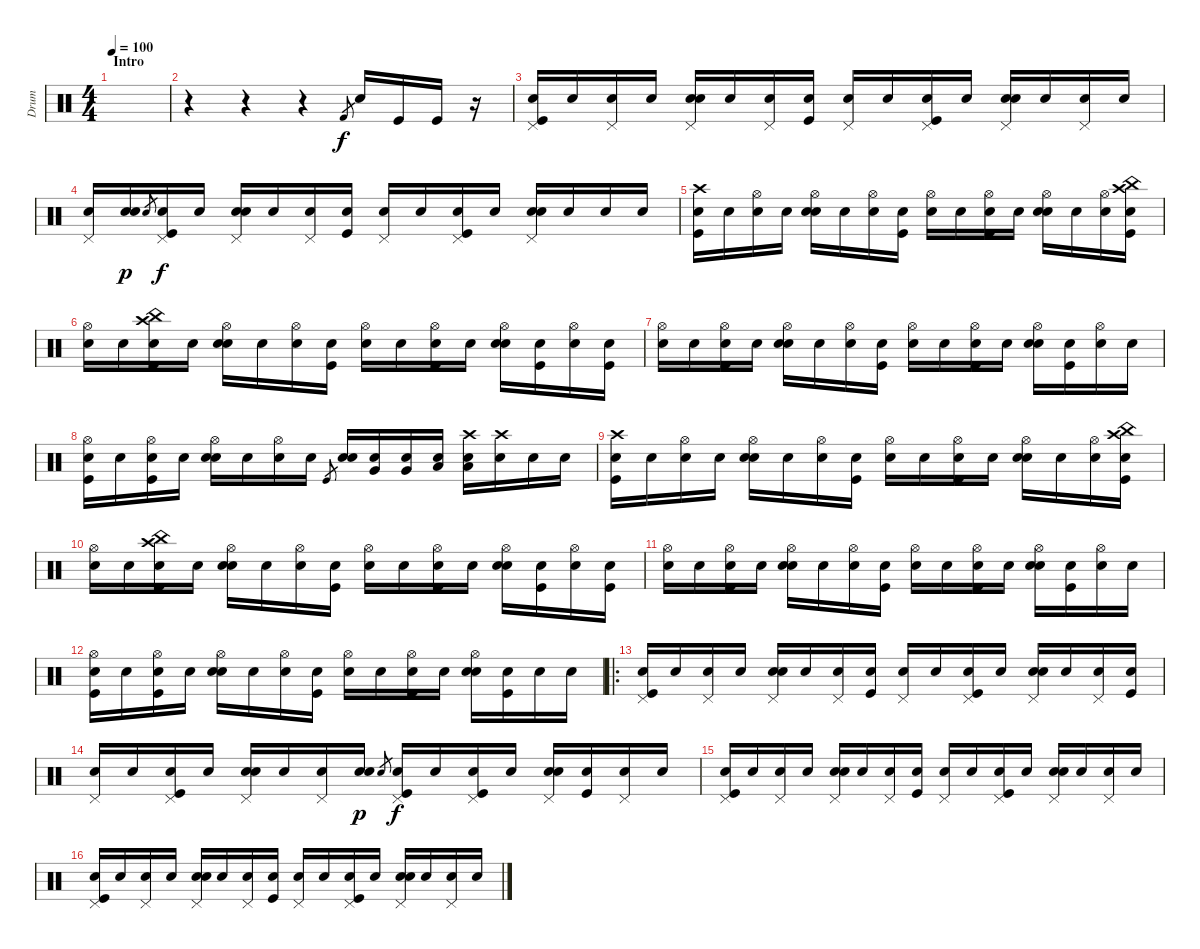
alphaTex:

\track ("Drum" "Drum") {instrument percussion}
\staff {score}
\articulation defaults
\ts (4 4)
\section ("" "Intro")
\tempo 100
\clef neutral
\ks c
|
r.4 r.4 r.4 "Kick (hit) 2".8{gr} "Snare (hit) 2".16 "Kick (hit)".16 "Kick (hit)".16 r.16 |
("Kick (hit)" "Pedal Hi-Hat (hit)" "Snare (hit)"{x}).16 "Snare (hit)"{x}.16 ("Pedal Hi-Hat (hit)" "Snare (hit)"{x}).16 "Snare (hit)"{x}.16 ("Snare (hit) 2" "Pedal Hi-Hat (hit)" "Snare (hit)"{x}).16 "Snare (hit)"{x}.16 ("Pedal Hi-Hat (hit)" "Snare (hit)"{x}).16 ("Kick (hit)" "Snare (hit)"{x}).16 ("Pedal Hi-Hat (hit)" "Snare (hit)"{x}).16 "Snare (hit)"{x}.16 ("Kick (hit)" "Pedal Hi-Hat (hit)" "Snare (hit)"{x}).16 "Snare (hit)"{x}.16 ("Snare (hit) 2" "Pedal Hi-Hat (hit)" "Snare (hit)"{x}).16 "Snare (hit)"{x}.16 ("Pedal Hi-Hat (hit)" "Snare (hit)"{x}).16 "Snare (hit)"{x}.16 |
("Pedal Hi-Hat (hit)" "Snare (hit)"{x}).16 ("Snare (hit) 2" "Snare (hit)"{x}).16{dy p} "Snare (hit) 2".8{gr} ("Kick (hit)" "Pedal Hi-Hat (hit)" "Snare (hit)"{x}).16{dy f} "Snare (hit)"{x}.16 ("Snare (hit) 2" "Pedal Hi-Hat (hit)" "Snare (hit)"{x}).16 "Snare (hit)"{x}.16 ("Pedal Hi-Hat (hit)" "Snare (hit)"{x}).16 ("Kick (hit)" "Snare (hit)"{x}).16 ("Pedal Hi-Hat (hit)" "Snare (hit)"{x}).16 "Snare (hit)"{x}.16 ("Kick (hit)" "Pedal Hi-Hat (hit)" "Snare (hit)"{x}).16 "Snare (hit)"{x}.16 ("Snare (hit) 2" "Pedal Hi-Hat (hit)" "Snare (hit)"{x}).16 "Snare (hit)"{x}.16 "Snare (hit)"{x}.16 "Snare (hit)"{x}.16 |
("Kick (hit)" "Crash high (hit)" "Snare (hit)"{x}).16 "Snare (hit)"{x}.16 ("Hi-Hat (open)" "Snare (hit)"{x}).16 "Snare (hit)"{x}.16 ("Snare (hit) 2" "Hi-Hat (open)" "Snare (hit)"{x}).16 "Snare (hit)"{x}.16 ("Hi-Hat (open)" "Snare (hit)"{x}).16 ("Kick (hit)" "Snare (hit)"{x}).16 ("Hi-Hat (open)" "Snare (hit)"{x}).16 "Snare (hit)"{x}.16 ("Kick (hit)" "Hi-Hat (open)" "Snare (hit)"{x}).16 "Snare (hit)"{x}.16 ("Snare (hit) 2" "Hi-Hat (open)" "Snare (hit)"{x}).16 "Snare (hit)"{x}.16 ("Hi-Hat (open)" "Snare (hit)"{x}).16 ("Crash high (hit)" "Kick (hit)" "China (hit)" "Snare (hit)"{x}).16 |
("Hi-Hat (open)" "Snare (hit)"{x}).16 "Snare (hit)"{x}.16 ("Crash high (hit)" "Kick (hit)" "China (hit)" "Snare (hit)"{x}).16 "Snare (hit)"{x}.16 ("Snare (hit) 2" "Hi-Hat (open)" "Snare (hit)"{x}).16 "Snare (hit)"{x}.16 ("Hi-Hat (open)" "Snare (hit)"{x}).16 ("Kick (hit)" "Snare (hit)"{x}).16 ("Hi-Hat (open)" "Snare (hit)"{x}).16 "Snare (hit)"{x}.16 ("Kick (hit)" "Hi-Hat (open)" "Snare (hit)"{x}).16 "Snare (hit)"{x}.16 ("Snare (hit) 2" "Hi-Hat (open)" "Snare (hit)"{x}).16 ("Kick (hit)" "Snare (hit)"{x}).16 ("Hi-Hat (open)" "Snare (hit)"{x}).16 ("Kick (hit)" "Snare (hit)"{x}).16 |
("Hi-Hat (open)" "Snare (hit)"{x}).16 "Snare (hit)"{x}.16 ("Kick (hit)" "Hi-Hat (open)" "Snare (hit)"{x}).16 "Snare (hit)"{x}.16 ("Snare (hit) 2" "Hi-Hat (open)" "Snare (hit)"{x}).16 "Snare (hit)"{x}.16 ("Hi-Hat (open)" "Snare (hit)"{x}).16 ("Kick (hit)" "Snare (hit)"{x}).16 ("Hi-Hat (open)" "Snare (hit)"{x}).16 "Snare (hit)"{x}.16 ("Kick (hit)" "Hi-Hat (open)" "Snare (hit)"{x}).16 "Snare (hit)"{x}.16 ("Snare (hit) 2" "Hi-Hat (open)" "Snare (hit)"{x}).16 ("Kick (hit)" "Snare (hit)"{x}).16 ("Hi-Hat (open)" "Snare (hit)"{x}).16 "Snare (hit)"{x}.16 |
("Kick (hit)" "Hi-Hat (open)" "Snare (hit)"{x}).16 "Snare (hit)"{x}.16 ("Kick (hit)" "Hi-Hat (open)" "Snare (hit)"{x}).16 "Snare (hit)"{x}.16 ("Snare (hit) 2" "Hi-Hat (open)" "Snare (hit)"{x}).16 "Snare (hit)"{x}.16 ("Hi-Hat (open)" "Snare (hit)"{x}).16 "Snare (hit)"{x}.16 "Kick (hit)".8{gr} ("Snare (hit) 2" "Snare (hit)"{x}).16 ("Very Low Tom (hit)" "Snare (hit)"{x}).16 ("Very Low Tom (hit)" "Snare (hit)"{x}).16 ("Low Floor Tom (hit)" "Snare (hit)"{x}).16 ("Low Floor Tom (hit)" "Crash high (hit)" "Snare (hit)"{x}).16 ("Crash high (hit)" "Snare (hit)"{x}).16 "Snare (hit)"{x}.16 "Snare (hit)"{x}.16 |
("Kick (hit)" "Crash high (hit)" "Snare (hit)"{x}).16 "Snare (hit)"{x}.16 ("Hi-Hat (open)" "Snare (hit)"{x}).16 "Snare (hit)"{x}.16 ("Snare (hit) 2" "Hi-Hat (open)" "Snare (hit)"{x}).16 "Snare (hit)"{x}.16 ("Hi-Hat (open)" "Snare (hit)"{x}).16 ("Kick (hit)" "Snare (hit)"{x}).16 ("Hi-Hat (open)" "Snare (hit)"{x}).16 "Snare (hit)"{x}.16 ("Kick (hit)" "Hi-Hat (open)" "Snare (hit)"{x}).16 "Snare (hit)"{x}.16 ("Snare (hit) 2" "Hi-Hat (open)" "Snare (hit)"{x}).16 "Snare (hit)"{x}.16 ("Hi-Hat (open)" "Snare (hit)"{x}).16 ("Crash high (hit)" "Kick (hit)" "China (hit)" "Snare (hit)"{x}).16 |
("Hi-Hat (open)" "Snare (hit)"{x}).16 "Snare (hit)"{x}.16 ("Crash high (hit)" "Kick (hit)" "China (hit)" "Snare (hit)"{x}).16 "Snare (hit)"{x}.16 ("Snare (hit) 2" "Hi-Hat (open)" "Snare (hit)"{x}).16 "Snare (hit)"{x}.16 ("Hi-Hat (open)" "Snare (hit)"{x}).16 ("Kick (hit)" "Snare (hit)"{x}).16 ("Hi-Hat (open)" "Snare (hit)"{x}).16 "Snare (hit)"{x}.16 ("Kick (hit)" "Hi-Hat (open)" "Snare (hit)"{x}).16 "Snare (hit)"{x}.16 ("Snare (hit) 2" "Hi-Hat (open)" "Snare (hit)"{x}).16 ("Kick (hit)" "Snare (hit)"{x}).16 ("Hi-Hat (open)" "Snare (hit)"{x}).16 ("Kick (hit)" "Snare (hit)"{x}).16 |
("Hi-Hat (open)" "Snare (hit)"{x}).16 "Snare (hit)"{x}.16 ("Kick (hit)" "Hi-Hat (open)" "Snare (hit)"{x}).16 "Snare (hit)"{x}.16 ("Snare (hit) 2" "Hi-Hat (open)" "Snare (hit)"{x}).16 "Snare (hit)"{x}.16 ("Hi-Hat (open)" "Snare (hit)"{x}).16 ("Kick (hit)" "Snare (hit)"{x}).16 ("Hi-Hat (open)" "Snare (hit)"{x}).16 "Snare (hit)"{x}.16 ("Kick (hit)" "Hi-Hat (open)" "Snare (hit)"{x}).16 "Snare (hit)"{x}.16 ("Snare (hit) 2" "Hi-Hat (open)" "Snare (hit)"{x}).16 ("Kick (hit)" "Snare (hit)"{x}).16 ("Hi-Hat (open)" "Snare (hit)"{x}).16 "Snare (hit)"{x}.16 |
("Kick (hit)" "Hi-Hat (open)" "Snare (hit)"{x}).16 "Snare (hit)"{x}.16 ("Kick (hit)" "Hi-Hat (open)" "Snare (hit)"{x}).16 "Snare (hit)"{x}.16 ("Snare (hit) 2" "Hi-Hat (open)" "Snare (hit)"{x}).16 "Snare (hit)"{x}.16 ("Hi-Hat (open)" "Snare (hit)"{x}).16 ("Kick (hit)" "Snare (hit)"{x}).16 ("Hi-Hat (open)" "Snare (hit)"{x}).16 "Snare (hit)"{x}.16 ("Kick (hit)" "Hi-Hat (open)" "Snare (hit)"{x}).16 "Snare (hit)"{x}.16 ("Snare (hit) 2" "Hi-Hat (open)" "Snare (hit)"{x}).16 ("Kick (hit)" "Snare (hit)"{x}).16 "Snare (hit)"{x}.16 "Snare (hit)"{x}.16 |
\ro
("Kick (hit)" "Pedal Hi-Hat (hit)" "Snare (hit)"{x}).16 "Snare (hit)"{x}.16 ("Pedal Hi-Hat (hit)" "Snare (hit)"{x}).16 "Snare (hit)"{x}.16 ("Snare (hit) 2" "Pedal Hi-Hat (hit)" "Snare (hit)"{x}).16 "Snare (hit)"{x}.16 ("Pedal Hi-Hat (hit)" "Snare (hit)"{x}).16 ("Kick (hit)" "Snare (hit)"{x}).16 ("Pedal Hi-Hat (hit)" "Snare (hit)"{x}).16 "Snare (hit)"{x}.16 ("Kick (hit)" "Pedal Hi-Hat (hit)" "Snare (hit)"{x}).16 "Snare (hit)"{x}.16 ("Snare (hit) 2" "Pedal Hi-Hat (hit)" "Snare (hit)"{x}).16 "Snare (hit)"{x}.16 ("Pedal Hi-Hat (hit)" "Snare (hit)"{x}).16 ("Kick (hit)" "Snare (hit)"{x}).16 |
("Pedal Hi-Hat (hit)" "Snare (hit)"{x}).16 "Snare (hit)"{x}.16 ("Kick (hit)" "Pedal Hi-Hat (hit)" "Snare (hit)"{x}).16 "Snare (hit)"{x}.16 ("Snare (hit) 2" "Pedal Hi-Hat (hit)" "Snare (hit)"{x}).16 "Snare (hit)"{x}.16 ("Pedal Hi-Hat (hit)" "Snare (hit)"{x}).16 ("Snare (hit) 2" "Snare (hit)"{x}).16{dy p} "Snare (hit) 2".8{gr} ("Kick (hit)" "Pedal Hi-Hat (hit)" "Snare (hit)"{x}).16{dy f} "Snare (hit)"{x}.16 ("Kick (hit)" "Pedal Hi-Hat (hit)" "Snare (hit)"{x}).16 "Snare (hit)"{x}.16 ("Snare (hit) 2" "Pedal Hi-Hat (hit)" "Snare (hit)"{x}).16 ("Kick (hit)" "Snare (hit)"{x}).16 ("Pedal Hi-Hat (hit)" "Snare (hit)"{x}).16 "Snare (hit)"{x}.16 |
("Kick (hit)" "Pedal Hi-Hat (hit)" "Snare (hit)"{x}).16 "Snare (hit)"{x}.16 ("Pedal Hi-Hat (hit)" "Snare (hit)"{x}).16 "Snare (hit)"{x}.16 ("Snare (hit) 2" "Pedal Hi-Hat (hit)" "Snare (hit)"{x}).16 "Snare (hit)"{x}.16 ("Pedal Hi-Hat (hit)" "Snare (hit)"{x}).16 ("Kick (hit)" "Snare (hit)"{x}).16 ("Pedal Hi-Hat (hit)" "Snare (hit)"{x}).16 "Snare (hit)"{x}.16 ("Kick (hit)" "Pedal Hi-Hat (hit)" "Snare (hit)"{x}).16 "Snare (hit)"{x}.16 ("Snare (hit) 2" "Pedal Hi-Hat (hit)" "Snare (hit)"{x}).16 "Snare (hit)"{x}.16 ("Pedal Hi-Hat (hit)" "Snare (hit)"{x}).16 "Snare (hit)"{x}.16 |
("Kick (hit)" "Pedal Hi-Hat (hit)" "Snare (hit)"{x}).16 "Snare (hit)"{x}.16 ("Pedal Hi-Hat (hit)" "Snare (hit)"{x}).16 "Snare (hit)"{x}.16 ("Snare (hit) 2" "Pedal Hi-Hat (hit)" "Snare (hit)"{x}).16 "Snare (hit)"{x}.16 ("Pedal Hi-Hat (hit)" "Snare (hit)"{x}).16 ("Kick (hit)" "Snare (hit)"{x}).16 ("Pedal Hi-Hat (hit)" "Snare (hit)"{x}).16 "Snare (hit)"{x}.16 ("Kick (hit)" "Pedal Hi-Hat (hit)" "Snare (hit)"{x}).16 "Snare (hit)"{x}.16 ("Snare (hit) 2" "Pedal Hi-Hat (hit)" "Snare (hit)"{x}).16 "Snare (hit)"{x}.16 ("Pedal Hi-Hat (hit)" "Snare (hit)"{x}).16 "Snare (hit)"{x}.16
